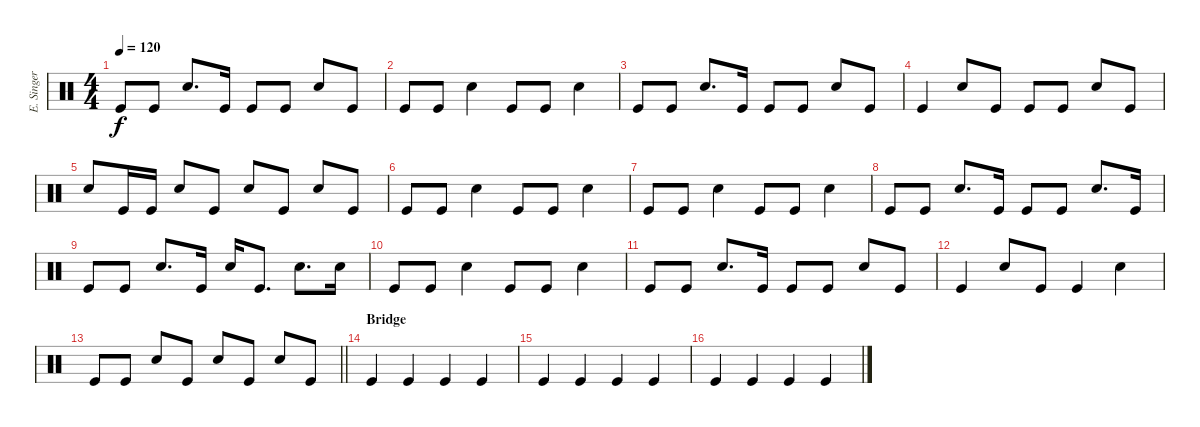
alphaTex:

\track ("E. Singer - Drums" "E. Singer ") {instrument percussion}
\staff {score}
\articulation defaults
\ts (4 4)
\tempo 120
\clef neutral
\ks c "Kick (hit)".8{dy f} "Kick (hit)".8 "Snare (hit) 2".8{d} "Kick (hit)".16 "Kick (hit)".8 "Kick (hit)".8 "Snare (hit) 2".8 "Kick (hit)".8
|
"Kick (hit)".8 "Kick (hit)".8 "Snare (hit) 2".4 "Kick (hit)".8 "Kick (hit)".8 "Snare (hit) 2".4 |
"Kick (hit)".8 "Kick (hit)".8 "Snare (hit) 2".8{d} "Kick (hit)".16 "Kick (hit)".8 "Kick (hit)".8 "Snare (hit) 2".8 "Kick (hit)".8 |
"Kick (hit)".4 "Snare (hit) 2".8 "Kick (hit)".8 "Kick (hit)".8 "Kick (hit)".8 "Snare (hit) 2".8 "Kick (hit)".8 |
"Snare (hit) 2".8 "Kick (hit)".16 "Kick (hit)".16 "Snare (hit) 2".8 "Kick (hit)".8 "Snare (hit) 2".8 "Kick (hit)".8 "Snare (hit) 2".8 "Kick (hit)".8 |
"Kick (hit)".8 "Kick (hit)".8 "Snare (hit) 2".4 "Kick (hit)".8 "Kick (hit)".8 "Snare (hit) 2".4 |
"Kick (hit)".8 "Kick (hit)".8 "Snare (hit) 2".4 "Kick (hit)".8 "Kick (hit)".8 "Snare (hit) 2".4 |
"Kick (hit)".8 "Kick (hit)".8 "Snare (hit) 2".8{d} "Kick (hit)".16 "Kick (hit)".8 "Kick (hit)".8 "Snare (hit) 2".8{d} "Kick (hit)".16 |
"Kick (hit)".8 "Kick (hit)".8 "Snare (hit) 2".8{d} "Kick (hit)".16 "Snare (hit) 2".16 "Kick (hit)".8{d} "Snare (hit) 2".8{d} "Snare (hit) 2".16 |
"Kick (hit)".8 "Kick (hit)".8 "Snare (hit) 2".4 "Kick (hit)".8 "Kick (hit)".8 "Snare (hit) 2".4 |
"Kick (hit)".8 "Kick (hit)".8 "Snare (hit) 2".8{d} "Kick (hit)".16 "Kick (hit)".8 "Kick (hit)".8 "Snare (hit) 2".8 "Kick (hit)".8 |
"Kick (hit)".4 "Snare (hit) 2".8 "Kick (hit)".8 "Kick (hit)".4 "Snare (hit) 2".4 |
\barLineRight lightlight "Kick (hit)".8 "Kick (hit)".8 "Snare (hit) 2".8 "Kick (hit)".8 "Snare (hit) 2".8 "Kick (hit)".8 "Snare (hit) 2".8 "Kick (hit)".8
|
\section ("" "Bridge")
"Kick (hit)".4 "Kick (hit)".4 "Kick (hit)".4 "Kick (hit)".4 |
"Kick (hit)".4 "Kick (hit)".4 "Kick (hit)".4 "Kick (hit)".4 |
"Kick (hit)".4 "Kick (hit)".4 "Kick (hit)".4 "Kick (hit)".4
